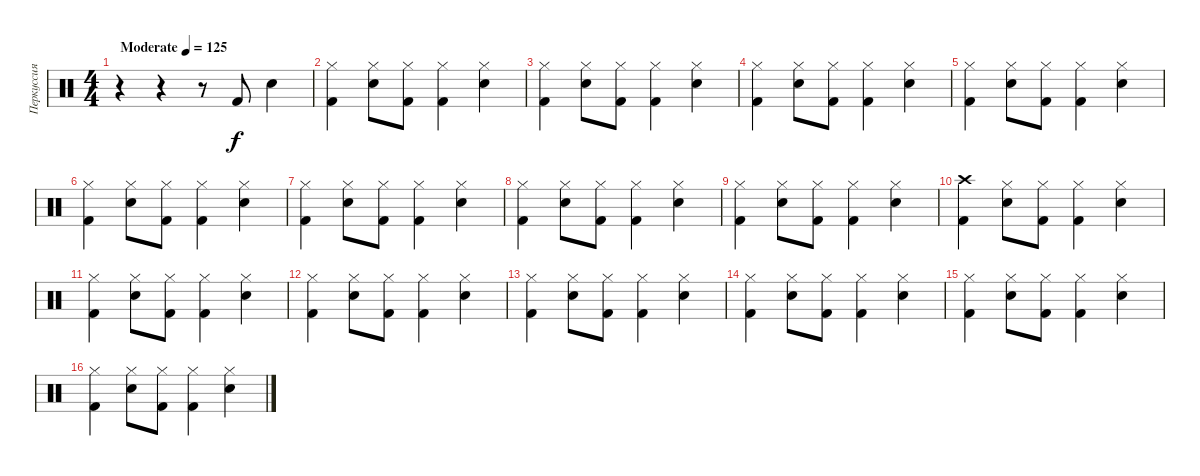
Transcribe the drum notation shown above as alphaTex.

\track ("Перкуссия" "Перкуссия") {instrument percussion}
\staff {score}
\articulation defaults
\ts (4 4)
\tempo (125 "Moderate")
\clef neutral
\ks c
r.4{dy f} r.4 r.8 "Kick (hit) 2".8 "Snare (hit) 2".4 |
("Hi-Hat (closed)" "Kick (hit) 2").4 ("Hi-Hat (closed)" "Snare (hit) 2").8 ("Hi-Hat (closed)" "Kick (hit) 2").8 ("Hi-Hat (closed)" "Kick (hit) 2").4 ("Hi-Hat (closed)" "Snare (hit) 2").4 |
("Hi-Hat (closed)" "Kick (hit) 2").4 ("Hi-Hat (closed)" "Snare (hit) 2").8 ("Hi-Hat (closed)" "Kick (hit) 2").8 ("Hi-Hat (closed)" "Kick (hit) 2").4 ("Hi-Hat (closed)" "Snare (hit) 2").4 |
("Hi-Hat (closed)" "Kick (hit) 2").4 ("Hi-Hat (closed)" "Snare (hit) 2").8 ("Hi-Hat (closed)" "Kick (hit) 2").8 ("Hi-Hat (closed)" "Kick (hit) 2").4 ("Hi-Hat (closed)" "Snare (hit) 2").4 |
("Hi-Hat (closed)" "Kick (hit) 2").4 ("Hi-Hat (closed)" "Snare (hit) 2").8 ("Hi-Hat (closed)" "Kick (hit) 2").8 ("Hi-Hat (closed)" "Kick (hit) 2").4 ("Hi-Hat (closed)" "Snare (hit) 2").4 |
("Hi-Hat (closed)" "Kick (hit) 2").4 ("Hi-Hat (closed)" "Snare (hit) 2").8 ("Hi-Hat (closed)" "Kick (hit) 2").8 ("Hi-Hat (closed)" "Kick (hit) 2").4 ("Hi-Hat (closed)" "Snare (hit) 2").4 |
("Hi-Hat (closed)" "Kick (hit) 2").4 ("Hi-Hat (closed)" "Snare (hit) 2").8 ("Hi-Hat (closed)" "Kick (hit) 2").8 ("Hi-Hat (closed)" "Kick (hit) 2").4 ("Hi-Hat (closed)" "Snare (hit) 2").4 |
("Hi-Hat (closed)" "Kick (hit) 2").4 ("Hi-Hat (closed)" "Snare (hit) 2").8 ("Hi-Hat (closed)" "Kick (hit) 2").8 ("Hi-Hat (closed)" "Kick (hit) 2").4 ("Hi-Hat (closed)" "Snare (hit) 2").4 |
("Hi-Hat (closed)" "Kick (hit) 2").4 ("Hi-Hat (closed)" "Snare (hit) 2").8 ("Hi-Hat (closed)" "Kick (hit) 2").8 ("Hi-Hat (closed)" "Kick (hit) 2").4 ("Hi-Hat (closed)" "Snare (hit) 2").4 |
("Crash high (hit)" "Kick (hit) 2").4 ("Hi-Hat (closed)" "Snare (hit) 2").8 ("Hi-Hat (closed)" "Kick (hit) 2").8 ("Hi-Hat (closed)" "Kick (hit) 2").4 ("Hi-Hat (closed)" "Snare (hit) 2").4 |
("Hi-Hat (closed)" "Kick (hit) 2").4 ("Hi-Hat (closed)" "Snare (hit) 2").8 ("Hi-Hat (closed)" "Kick (hit) 2").8 ("Hi-Hat (closed)" "Kick (hit) 2").4 ("Hi-Hat (closed)" "Snare (hit) 2").4 |
("Hi-Hat (closed)" "Kick (hit) 2").4 ("Hi-Hat (closed)" "Snare (hit) 2").8 ("Hi-Hat (closed)" "Kick (hit) 2").8 ("Hi-Hat (closed)" "Kick (hit) 2").4 ("Hi-Hat (closed)" "Snare (hit) 2").4 |
("Hi-Hat (closed)" "Kick (hit) 2").4 ("Hi-Hat (closed)" "Snare (hit) 2").8 ("Hi-Hat (closed)" "Kick (hit) 2").8 ("Hi-Hat (closed)" "Kick (hit) 2").4 ("Hi-Hat (closed)" "Snare (hit) 2").4 |
("Hi-Hat (closed)" "Kick (hit) 2").4 ("Hi-Hat (closed)" "Snare (hit) 2").8 ("Hi-Hat (closed)" "Kick (hit) 2").8 ("Hi-Hat (closed)" "Kick (hit) 2").4 ("Hi-Hat (closed)" "Snare (hit) 2").4 |
("Hi-Hat (closed)" "Kick (hit) 2").4 ("Hi-Hat (closed)" "Snare (hit) 2").8 ("Hi-Hat (closed)" "Kick (hit) 2").8 ("Hi-Hat (closed)" "Kick (hit) 2").4 ("Hi-Hat (closed)" "Snare (hit) 2").4 |
("Hi-Hat (closed)" "Kick (hit) 2").4 ("Hi-Hat (closed)" "Snare (hit) 2").8 ("Hi-Hat (closed)" "Kick (hit) 2").8 ("Hi-Hat (closed)" "Kick (hit) 2").4 ("Hi-Hat (closed)" "Snare (hit) 2").4
